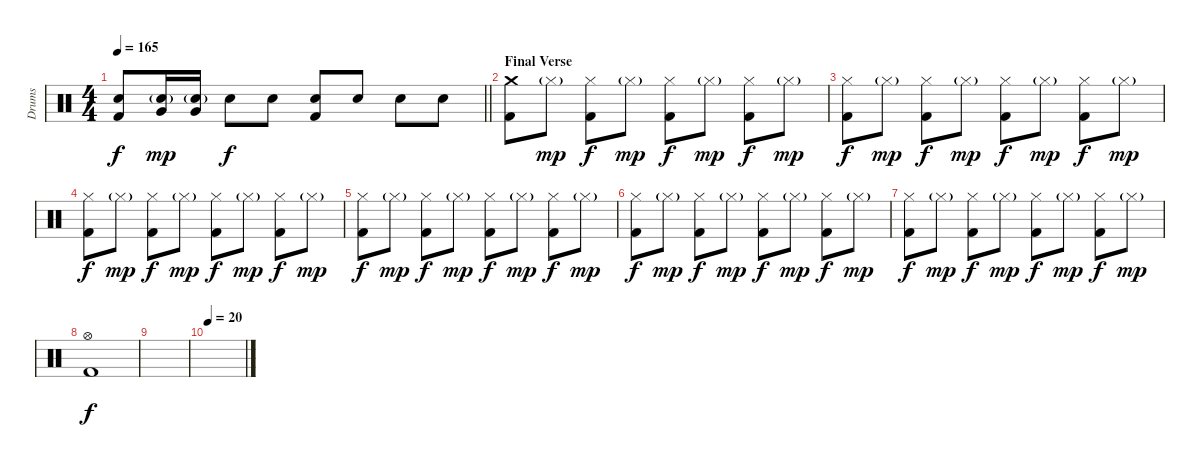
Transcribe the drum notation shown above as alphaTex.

\track ("Drums" "Drums") {instrument percussion}
\staff {score}
\articulation defaults
\ts (4 4)
\tempo 165
\clef neutral
\barLineRight lightlight
\ks c
("Kick (hit) 2" "Electric Snare (hit)").8{dy f} ("Very Low Tom (hit)" "Electric Snare (hit)"{g}).16{dy mp} ("Very Low Tom (hit)" "Electric Snare (hit)"{g}).16 "Electric Snare (hit)".8{dy f} "Electric Snare (hit)".8 ("Kick (hit) 2" "Electric Snare (hit)").8 "Electric Snare (hit)".8 "Electric Snare (hit)".8 "Electric Snare (hit)".8 |
\section ("" "Final Verse")
("Crash medium (hit)" "Kick (hit) 2").8 "Hi-Hat (closed)"{g}.8{dy mp} ("Hi-Hat (closed)" "Kick (hit) 2").8{dy f} "Hi-Hat (closed)"{g}.8{dy mp} ("Hi-Hat (closed)" "Kick (hit) 2").8{dy f} "Hi-Hat (closed)"{g}.8{dy mp} ("Hi-Hat (closed)" "Kick (hit) 2").8{dy f} "Hi-Hat (closed)"{g}.8{dy mp} |
("Hi-Hat (closed)" "Kick (hit) 2").8{dy f} "Hi-Hat (closed)"{g}.8{dy mp} ("Hi-Hat (closed)" "Kick (hit) 2").8{dy f} "Hi-Hat (closed)"{g}.8{dy mp} ("Hi-Hat (closed)" "Kick (hit) 2").8{dy f} "Hi-Hat (closed)"{g}.8{dy mp} ("Hi-Hat (closed)" "Kick (hit) 2").8{dy f} "Hi-Hat (closed)"{g}.8{dy mp} |
("Hi-Hat (closed)" "Kick (hit) 2").8{dy f} "Hi-Hat (closed)"{g}.8{dy mp} ("Hi-Hat (closed)" "Kick (hit) 2").8{dy f} "Hi-Hat (closed)"{g}.8{dy mp} ("Hi-Hat (closed)" "Kick (hit) 2").8{dy f} "Hi-Hat (closed)"{g}.8{dy mp} ("Hi-Hat (closed)" "Kick (hit) 2").8{dy f} "Hi-Hat (closed)"{g}.8{dy mp} |
("Hi-Hat (closed)" "Kick (hit) 2").8{dy f} "Hi-Hat (closed)"{g}.8{dy mp} ("Hi-Hat (closed)" "Kick (hit) 2").8{dy f} "Hi-Hat (closed)"{g}.8{dy mp} ("Hi-Hat (closed)" "Kick (hit) 2").8{dy f} "Hi-Hat (closed)"{g}.8{dy mp} ("Hi-Hat (closed)" "Kick (hit) 2").8{dy f} "Hi-Hat (closed)"{g}.8{dy mp} |
("Hi-Hat (closed)" "Kick (hit) 2").8{dy f} "Hi-Hat (closed)"{g}.8{dy mp} ("Hi-Hat (closed)" "Kick (hit) 2").8{dy f} "Hi-Hat (closed)"{g}.8{dy mp} ("Hi-Hat (closed)" "Kick (hit) 2").8{dy f} "Hi-Hat (closed)"{g}.8{dy mp} ("Hi-Hat (closed)" "Kick (hit) 2").8{dy f} "Hi-Hat (closed)"{g}.8{dy mp} |
("Hi-Hat (closed)" "Kick (hit) 2").8{dy f} "Hi-Hat (closed)"{g}.8{dy mp} ("Hi-Hat (closed)" "Kick (hit) 2").8{dy f} "Hi-Hat (closed)"{g}.8{dy mp} ("Hi-Hat (closed)" "Kick (hit) 2").8{dy f} "Hi-Hat (closed)"{g}.8{dy mp} ("Hi-Hat (closed)" "Kick (hit) 2").8{dy f} "Hi-Hat (closed)"{g}.8{dy mp} |
("Kick (hit) 2" "Hi-Hat (open)").1{dy f} |
|
\tempo 20
